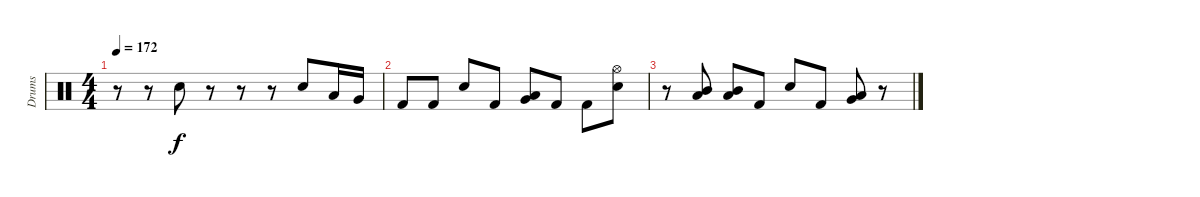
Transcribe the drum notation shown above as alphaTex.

\track ("Drums" "Drums") {instrument percussion}
\staff {score}
\articulation defaults
\ts (4 4)
\tempo 172
\clef neutral
\ks c
r.8{dy f} r.8 "Electric Snare (hit)".8 r.8 r.8 r.8 "Electric Snare (hit)".8 "Low Tom (hit)".16 "Very Low Tom (hit)".16 |
"Kick (hit) 2".8 "Kick (hit) 2".8 "Electric Snare (hit)".8 "Kick (hit) 2".8 ("Very Low Tom (hit)" "Low Tom (hit)").8 "Kick (hit) 2".8 "Kick (hit) 2".8 ("Hi-Hat (open)" "Electric Snare (hit)").8 |
r.8 ("Mid Tom (hit)" "Low Tom (hit)").8 ("Mid Tom (hit)" "Low Tom (hit)").8 "Kick (hit) 2".8 "Electric Snare (hit)".8 "Kick (hit) 2".8 ("Low Tom (hit)" "Very Low Tom (hit)").8 r.8
